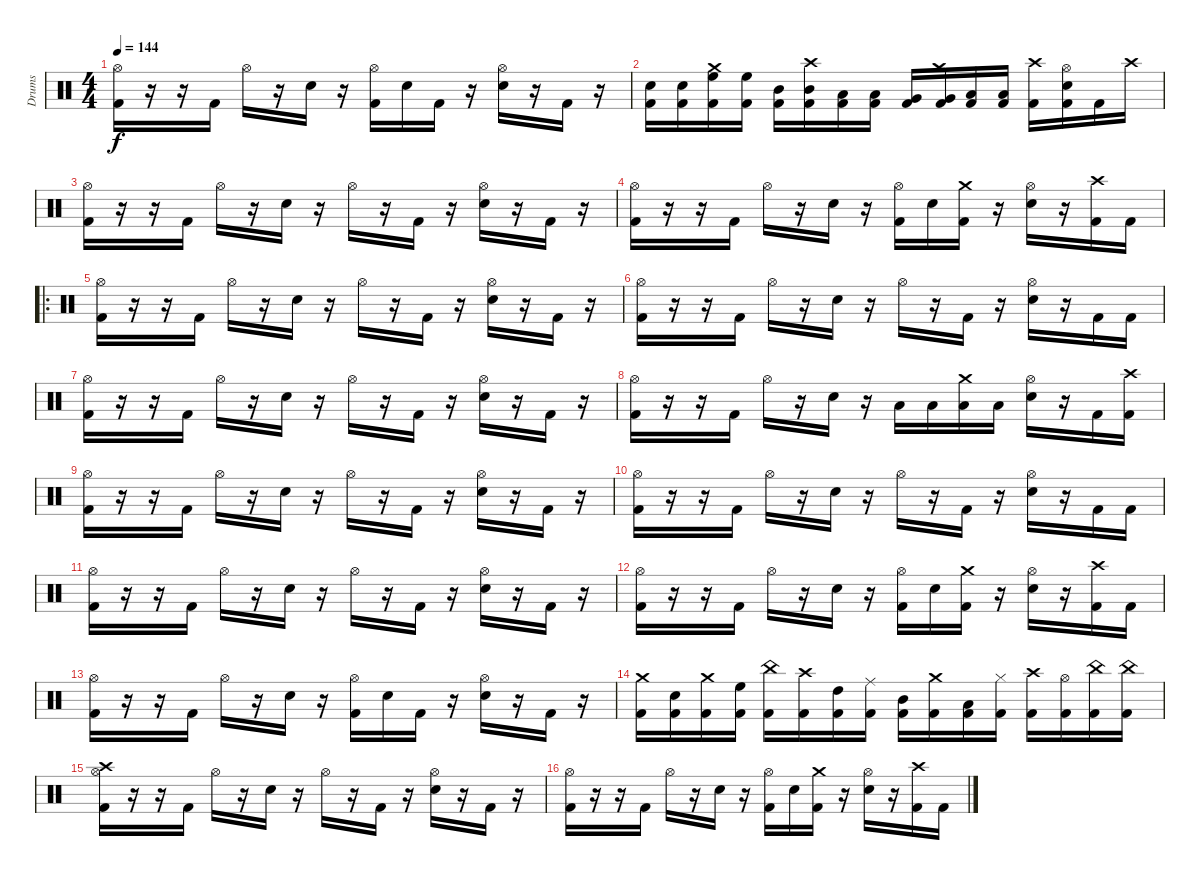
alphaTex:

\track ("Drums" "Drums") {instrument percussion}
\staff {score}
\articulation defaults
\ts (4 4)
\tempo 144
\clef neutral
\ks c
("Hi-Hat (open)" "Kick (hit) 2").16{dy f} r.16 r.16 "Kick (hit) 2".16 "Hi-Hat (open)".16 r.16 "Snare (hit) 2".16 r.16 ("Hi-Hat (open)" "Kick (hit) 2").16 "Snare (hit) 2".16 "Kick (hit) 2".16 r.16 ("Hi-Hat (open)" "Snare (hit) 2").16 r.16 "Kick (hit) 2".16 r.16 |
("Snare (hit) 2" "Kick (hit) 2").16 ("Snare (hit) 2" "Kick (hit) 2").16 ("Crash medium (hit)" "High Floor Tom (hit)" "Kick (hit) 2").16 ("High Floor Tom (hit)" "Kick (hit) 2").16 ("Mid Tom (hit)" "Kick (hit) 2").16 ("Crash high (hit)" "Mid Tom (hit)" "Kick (hit) 2").16 ("Low Tom (hit)" "Kick (hit) 2").16 ("Low Tom (hit)" "Kick (hit) 2").16 ("Very Low Tom (hit)" "Kick (hit) 2").16 ("Crash medium (hit)" "Very Low Tom (hit)" "Kick (hit) 2").16 ("Low Floor Tom (hit)" "Kick (hit) 2").16 ("Low Floor Tom (hit)" "Kick (hit) 2").16 ("Crash high (hit)" "Kick (hit) 2").16 ("Hi-Hat (open)" "Snare (hit) 2" "Kick (hit) 2").16 "Kick (hit) 2".16 "Crash high (hit)".16 |
("Hi-Hat (open)" "Kick (hit) 2").16 r.16 r.16 "Kick (hit) 2".16 "Hi-Hat (open)".16 r.16 "Snare (hit) 2".16 r.16 "Hi-Hat (open)".16 r.16 "Kick (hit) 2".16 r.16 ("Hi-Hat (open)" "Snare (hit) 2").16 r.16 "Kick (hit) 2".16 r.16 |
("Hi-Hat (open)" "Kick (hit) 2").16 r.16 r.16 "Kick (hit) 2".16 "Hi-Hat (open)".16 r.16 "Snare (hit) 2".16 r.16 ("Hi-Hat (open)" "Kick (hit) 2").16 "Snare (hit) 2".16 ("Crash medium (hit)" "Kick (hit) 2").16 r.16 ("Hi-Hat (open)" "Snare (hit) 2").16 r.16 ("Crash high (hit)" "Kick (hit) 2").16 "Kick (hit) 2".16 |
\ro
("Hi-Hat (open)" "Kick (hit) 2").16 r.16 r.16 "Kick (hit) 2".16 "Hi-Hat (open)".16 r.16 "Snare (hit) 2".16 r.16 "Hi-Hat (open)".16 r.16 "Kick (hit) 2".16 r.16 ("Hi-Hat (open)" "Snare (hit) 2").16 r.16 "Kick (hit) 2".16 r.16 |
("Hi-Hat (open)" "Kick (hit) 2").16 r.16 r.16 "Kick (hit) 2".16 "Hi-Hat (open)".16 r.16 "Snare (hit) 2".16 r.16 "Hi-Hat (open)".16 r.16 "Kick (hit) 2".16 r.16 ("Hi-Hat (open)" "Snare (hit) 2").16 r.16 "Kick (hit) 2".16 "Kick (hit) 2".16 |
("Hi-Hat (open)" "Kick (hit) 2").16 r.16 r.16 "Kick (hit) 2".16 "Hi-Hat (open)".16 r.16 "Snare (hit) 2".16 r.16 "Hi-Hat (open)".16 r.16 "Kick (hit) 2".16 r.16 ("Hi-Hat (open)" "Snare (hit) 2").16 r.16 "Kick (hit) 2".16 r.16 |
("Hi-Hat (open)" "Kick (hit) 2").16 r.16 r.16 "Kick (hit) 2".16 "Hi-Hat (open)".16 r.16 "Snare (hit) 2".16 r.16 "Low Tom (hit)".16 "Low Tom (hit)".16 ("Crash medium (hit)" "Low Floor Tom (hit)").16 "Low Floor Tom (hit)".16 ("Hi-Hat (open)" "Snare (hit) 2").16 r.16 "Kick (hit) 2".16 ("Crash high (hit)" "Kick (hit) 2").16 |
("Hi-Hat (open)" "Kick (hit) 2").16 r.16 r.16 "Kick (hit) 2".16 "Hi-Hat (open)".16 r.16 "Snare (hit) 2".16 r.16 "Hi-Hat (open)".16 r.16 "Kick (hit) 2".16 r.16 ("Hi-Hat (open)" "Snare (hit) 2").16 r.16 "Kick (hit) 2".16 r.16 |
("Hi-Hat (open)" "Kick (hit) 2").16 r.16 r.16 "Kick (hit) 2".16 "Hi-Hat (open)".16 r.16 "Snare (hit) 2".16 r.16 "Hi-Hat (open)".16 r.16 "Kick (hit) 2".16 r.16 ("Hi-Hat (open)" "Snare (hit) 2").16 r.16 "Kick (hit) 2".16 "Kick (hit) 2".16 |
("Hi-Hat (open)" "Kick (hit) 2").16 r.16 r.16 "Kick (hit) 2".16 "Hi-Hat (open)".16 r.16 "Snare (hit) 2".16 r.16 "Hi-Hat (open)".16 r.16 "Kick (hit) 2".16 r.16 ("Hi-Hat (open)" "Snare (hit) 2").16 r.16 "Kick (hit) 2".16 r.16 |
("Hi-Hat (open)" "Kick (hit) 2").16 r.16 r.16 "Kick (hit) 2".16 "Hi-Hat (open)".16 r.16 "Snare (hit) 2".16 r.16 ("Hi-Hat (open)" "Kick (hit) 2").16 "Snare (hit) 2".16 ("Crash medium (hit)" "Kick (hit) 2").16 r.16 ("Hi-Hat (open)" "Snare (hit) 2").16 r.16 ("Crash high (hit)" "Kick (hit) 2").16 "Kick (hit) 2".16 |
("Hi-Hat (open)" "Kick (hit) 2").16 r.16 r.16 "Kick (hit) 2".16 "Hi-Hat (open)".16 r.16 "Snare (hit) 2".16 r.16 ("Hi-Hat (open)" "Kick (hit) 2").16 "Snare (hit) 2".16 "Kick (hit) 2".16 r.16 ("Hi-Hat (open)" "Snare (hit) 2").16 r.16 "Kick (hit) 2".16 r.16 |
("Crash medium (hit)" "Kick (hit) 2").16 ("Snare (hit) 2" "Kick (hit) 2").16 ("Crash medium (hit)" "Kick (hit) 2").16 ("High Floor Tom (hit)" "Kick (hit) 2").16 ("China (hit)" "Kick (hit) 2").16 ("Crash high (hit)" "Kick (hit) 2").16 ("High Tom (hit)" "Kick (hit) 2").16 ("Ride (middle)" "Kick (hit) 2").16 ("Mid Tom (hit)" "Kick (hit) 2").16 ("Crash medium (hit)" "Kick (hit) 2").16 ("Low Tom (hit)" "Kick (hit) 2").16 ("Hi-Hat (closed)" "Kick (hit) 2").16 ("Crash high (hit)" "Kick (hit) 2").16 ("Hi-Hat (open)" "Kick (hit) 2").16 ("China (hit)" "Kick (hit) 2").16 ("China (hit)" "Kick (hit) 2").16 |
("Hi-Hat (open)" "Crash high (hit)" "Kick (hit) 2").16 r.16 r.16 "Kick (hit) 2".16 "Hi-Hat (open)".16 r.16 "Snare (hit) 2".16 r.16 "Hi-Hat (open)".16 r.16 "Kick (hit) 2".16 r.16 ("Hi-Hat (open)" "Snare (hit) 2").16 r.16 "Kick (hit) 2".16 r.16 |
("Hi-Hat (open)" "Kick (hit) 2").16 r.16 r.16 "Kick (hit) 2".16 "Hi-Hat (open)".16 r.16 "Snare (hit) 2".16 r.16 ("Hi-Hat (open)" "Kick (hit) 2").16 "Snare (hit) 2".16 ("Crash medium (hit)" "Kick (hit) 2").16 r.16 ("Hi-Hat (open)" "Snare (hit) 2").16 r.16 ("Crash high (hit)" "Kick (hit) 2").16 "Kick (hit) 2".16
